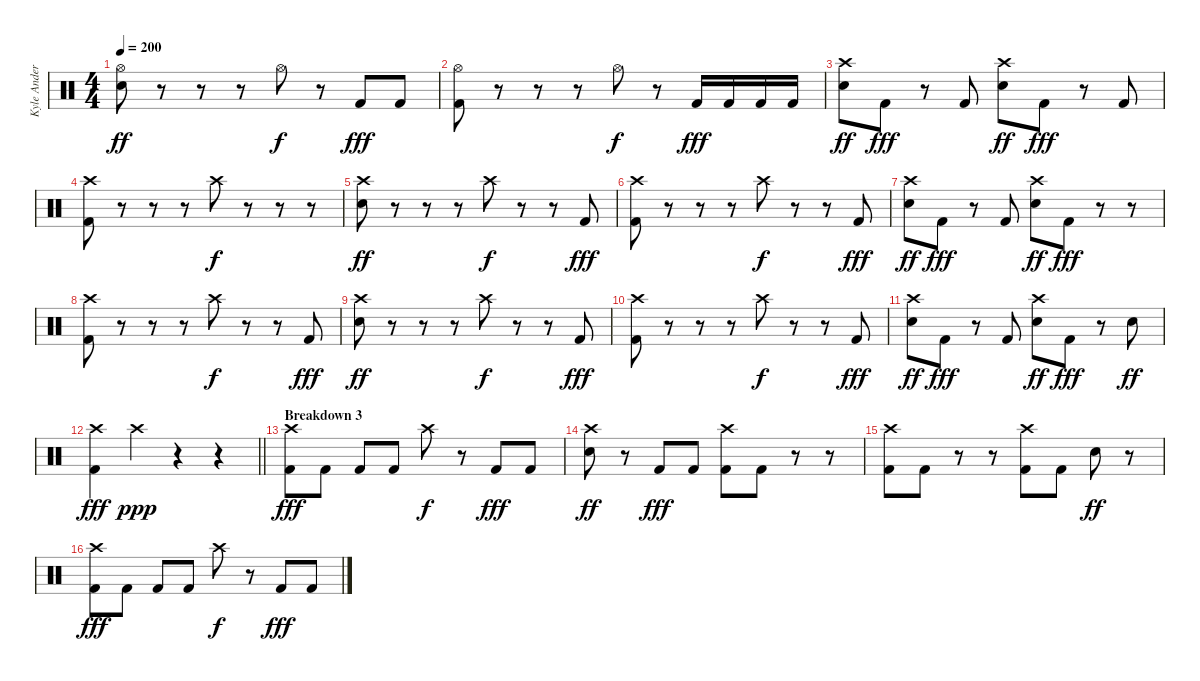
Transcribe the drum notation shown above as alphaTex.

\track ("Kyle Anderson" "Kyle Ander") {instrument percussion}
\staff {score}
\articulation defaults
\ts (4 4)
\tempo 200
\clef neutral
\ks c
("Hi-Hat (open)" "Electric Snare (hit)").8{dy ff} r.8 r.8 r.8 "Hi-Hat (open)".8{dy f} r.8 "Kick (hit) 2".8{dy fff} "Kick (hit) 2".8 |
("Hi-Hat (open)" "Kick (hit) 2").8 r.8 r.8 r.8 "Hi-Hat (open)".8{dy f} r.8 "Kick (hit) 2".16{dy fff} "Kick (hit) 2".16 "Kick (hit) 2".16 "Kick (hit) 2".16 |
("Crash high (hit)" "Electric Snare (hit)").8{dy ff} "Kick (hit) 2".8{dy fff} r.8 "Kick (hit) 2".8 ("Crash high (hit)" "Electric Snare (hit)").8{dy ff} "Kick (hit) 2".8{dy fff} r.8 "Kick (hit) 2".8 |
("Crash high (hit)" "Kick (hit) 2").8 r.8 r.8 r.8 "Crash high (hit)".8{dy f} r.8 r.8 r.8 |
("Crash high (hit)" "Electric Snare (hit)").8{dy ff} r.8 r.8 r.8 "Crash high (hit)".8{dy f} r.8 r.8 "Kick (hit) 2".8{dy fff} |
("Crash high (hit)" "Kick (hit) 2").8 r.8 r.8 r.8 "Crash high (hit)".8{dy f} r.8 r.8 "Kick (hit) 2".8{dy fff} |
("Crash high (hit)" "Electric Snare (hit)").8{dy ff} "Kick (hit) 2".8{dy fff} r.8 "Kick (hit) 2".8 ("Crash high (hit)" "Electric Snare (hit)").8{dy ff} "Kick (hit) 2".8{dy fff} r.8 r.8 |
("Crash high (hit)" "Kick (hit) 2").8 r.8 r.8 r.8 "Crash high (hit)".8{dy f} r.8 r.8 "Kick (hit) 2".8{dy fff} |
("Crash high (hit)" "Electric Snare (hit)").8{dy ff} r.8 r.8 r.8 "Crash high (hit)".8{dy f} r.8 r.8 "Kick (hit) 2".8{dy fff} |
("Crash high (hit)" "Kick (hit) 2").8 r.8 r.8 r.8 "Crash high (hit)".8{dy f} r.8 r.8 "Kick (hit) 2".8{dy fff} |
("Crash high (hit)" "Electric Snare (hit)").8{dy ff} "Kick (hit) 2".8{dy fff} r.8 "Kick (hit) 2".8 ("Crash high (hit)" "Electric Snare (hit)").8{dy ff} "Kick (hit) 2".8{dy fff} r.8 "Electric Snare (hit)".8{dy ff} |
\barLineRight lightlight
("Crash high (hit)" "Kick (hit) 2").4{dy fff} "Crash high (hit)".4{dy ppp} r.4 r.4 |
\section ("" "Breakdown 3")
("Crash high (hit)" "Kick (hit) 2").8{dy fff} "Kick (hit) 2".8 "Kick (hit) 2".8 "Kick (hit) 2".8 "Crash high (hit)".8{dy f} r.8 "Kick (hit) 2".8{dy fff} "Kick (hit) 2".8 |
("Crash high (hit)" "Electric Snare (hit)").8{dy ff} r.8 "Kick (hit) 2".8{dy fff} "Kick (hit) 2".8 ("Crash high (hit)" "Kick (hit) 2").8 "Kick (hit) 2".8 r.8 r.8 |
("Crash high (hit)" "Kick (hit) 2").8 "Kick (hit) 2".8 r.8 r.8 ("Crash high (hit)" "Kick (hit) 2").8 "Kick (hit) 2".8 "Electric Snare (hit)".8{dy ff} r.8 |
("Crash high (hit)" "Kick (hit) 2").8{dy fff} "Kick (hit) 2".8 "Kick (hit) 2".8 "Kick (hit) 2".8 "Crash high (hit)".8{dy f} r.8 "Kick (hit) 2".8{dy fff} "Kick (hit) 2".8
